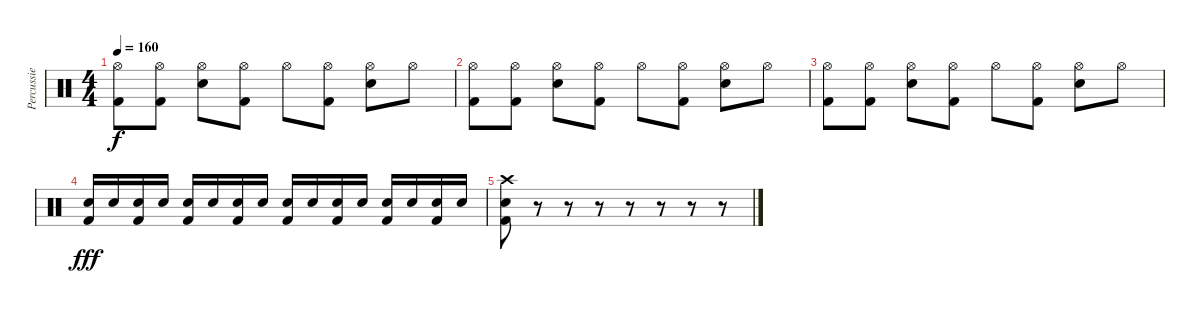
\track ("Percussie" "Percussie") {instrument percussion}
\staff {score}
\articulation defaults
\ts (4 4)
\tempo 160
\clef neutral
\ks c
("Kick (hit) 2" "Hi-Hat (open)").8{dy f} ("Kick (hit) 2" "Hi-Hat (open)").8 ("Electric Snare (hit)" "Hi-Hat (open)").8 ("Kick (hit) 2" "Hi-Hat (open)").8 "Hi-Hat (open)".8 ("Kick (hit) 2" "Hi-Hat (open)").8 ("Electric Snare (hit)" "Hi-Hat (open)").8 "Hi-Hat (open)".8 |
("Kick (hit) 2" "Hi-Hat (open)").8 ("Kick (hit) 2" "Hi-Hat (open)").8 ("Electric Snare (hit)" "Hi-Hat (open)").8 ("Kick (hit) 2" "Hi-Hat (open)").8 "Hi-Hat (open)".8 ("Kick (hit) 2" "Hi-Hat (open)").8 ("Electric Snare (hit)" "Hi-Hat (open)").8 "Hi-Hat (open)".8 |
("Kick (hit) 2" "Hi-Hat (open)").8 ("Kick (hit) 2" "Hi-Hat (open)").8 ("Electric Snare (hit)" "Hi-Hat (open)").8 ("Kick (hit) 2" "Hi-Hat (open)").8 "Hi-Hat (open)".8 ("Kick (hit) 2" "Hi-Hat (open)").8 ("Electric Snare (hit)" "Hi-Hat (open)").8 "Hi-Hat (open)".8 |
("Kick (hit) 2" "Electric Snare (hit)").16{dy fff} "Electric Snare (hit)".16 ("Kick (hit) 2" "Electric Snare (hit)").16 "Electric Snare (hit)".16 ("Kick (hit) 2" "Electric Snare (hit)").16 "Electric Snare (hit)".16 ("Kick (hit) 2" "Electric Snare (hit)").16 "Electric Snare (hit)".16 ("Kick (hit) 2" "Electric Snare (hit)").16 "Electric Snare (hit)".16 ("Kick (hit) 2" "Electric Snare (hit)").16 "Electric Snare (hit)".16 ("Kick (hit) 2" "Electric Snare (hit)").16 "Electric Snare (hit)".16 ("Kick (hit) 2" "Electric Snare (hit)").16 "Electric Snare (hit)".16 |
("Kick (hit) 2" "Electric Snare (hit)" "Crash high (hit)").8 r.8 r.8 r.8 r.8 r.8 r.8 r.8
